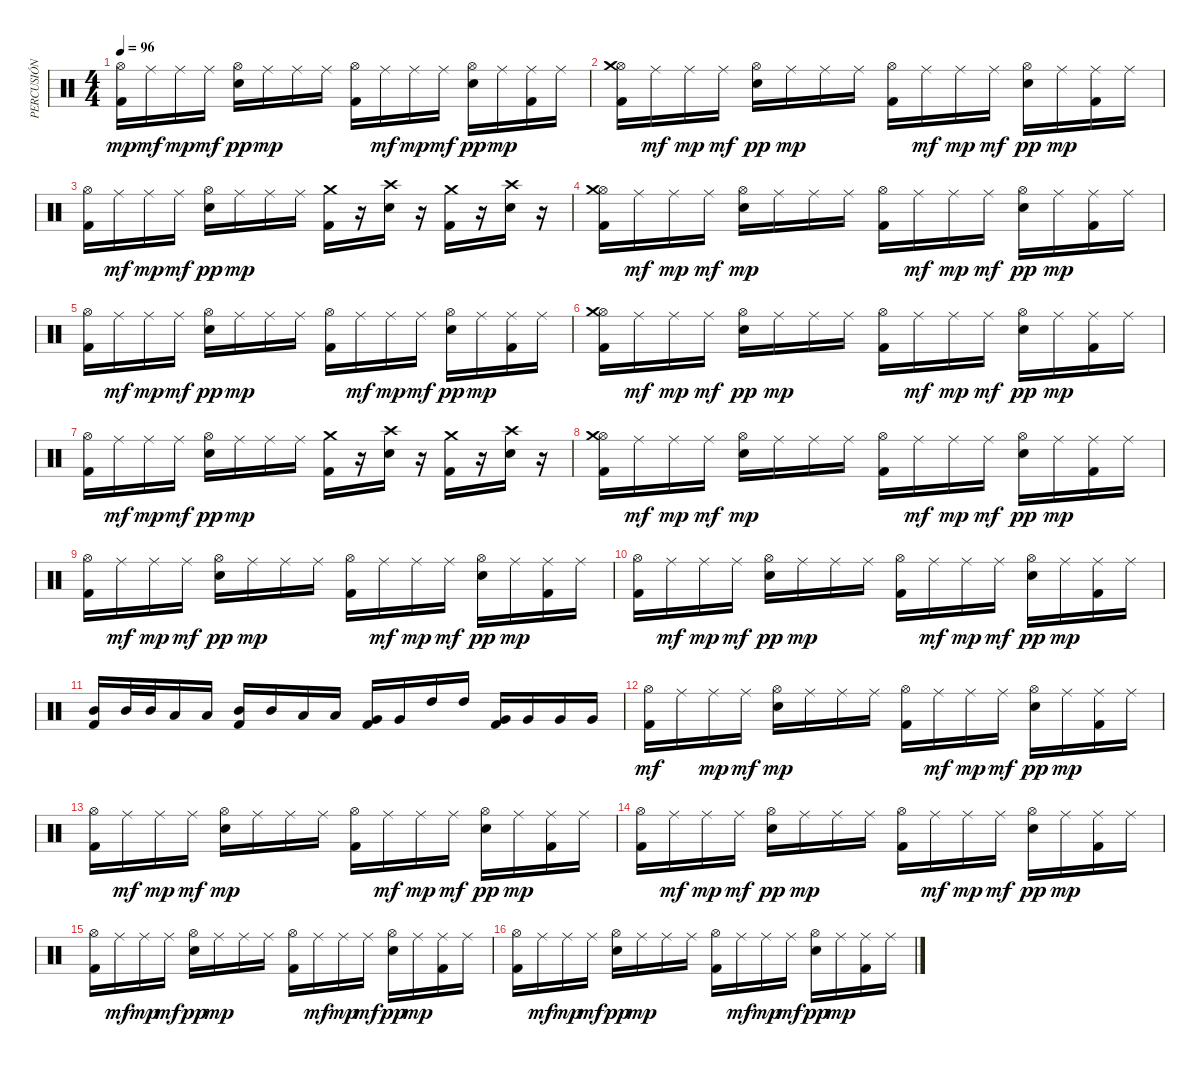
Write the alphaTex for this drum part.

\track ("PERCUSIÓN" "PERCUSIÓN") {instrument percussion}
\staff {score}
\articulation defaults
\ts (4 4)
\tempo 96
\clef neutral
\ks c
("Kick (hit) 2" "Hi-Hat (open)").16{dy mp} "Ride (middle)".16{dy mf} "Ride (middle)".16{dy mp} "Ride (middle)".16{dy mf} ("Snare (hit) 2" "Hi-Hat (open)").16{dy pp} "Ride (middle)".16{dy mp} "Ride (middle)".16 "Ride (middle)".16 ("Kick (hit) 2" "Hi-Hat (open)").16 "Ride (middle)".16{dy mf} "Ride (middle)".16{dy mp} "Ride (middle)".16{dy mf} ("Snare (hit) 2" "Hi-Hat (open)").16{dy pp} "Ride (middle)".16{dy mp} ("Kick (hit) 2" "Ride (middle)").16 "Ride (middle)".16 |
("Kick (hit) 2" "Hi-Hat (open)" "Crash medium (hit)").16 "Ride (middle)".16{dy mf} "Ride (middle)".16{dy mp} "Ride (middle)".16{dy mf} ("Snare (hit) 2" "Hi-Hat (open)").16{dy pp} "Ride (middle)".16{dy mp} "Ride (middle)".16 "Ride (middle)".16 ("Kick (hit) 2" "Hi-Hat (open)").16 "Ride (middle)".16{dy mf} "Ride (middle)".16{dy mp} "Ride (middle)".16{dy mf} ("Snare (hit) 2" "Hi-Hat (open)").16{dy pp} "Ride (middle)".16{dy mp} ("Kick (hit) 2" "Ride (middle)").16 "Ride (middle)".16 |
("Kick (hit) 2" "Hi-Hat (open)").16 "Ride (middle)".16{dy mf} "Ride (middle)".16{dy mp} "Ride (middle)".16{dy mf} ("Snare (hit) 2" "Hi-Hat (open)").16{dy pp} "Ride (middle)".16{dy mp} "Ride (middle)".16 "Ride (middle)".16 ("Kick (hit) 2" "Crash medium (hit)").16 r.16 ("Snare (hit) 2" "Crash high (hit)").16 r.16 ("Kick (hit) 2" "Crash medium (hit)").16 r.16 ("Snare (hit) 2" "Crash high (hit)").16 r.16 |
("Kick (hit) 2" "Hi-Hat (open)" "Crash medium (hit)").16 "Ride (middle)".16{dy mf} "Ride (middle)".16{dy mp} "Ride (middle)".16{dy mf} ("Snare (hit) 2" "Hi-Hat (open)").16{dy mp} "Ride (middle)".16 "Ride (middle)".16 "Ride (middle)".16 ("Kick (hit) 2" "Hi-Hat (open)").16 "Ride (middle)".16{dy mf} "Ride (middle)".16{dy mp} "Ride (middle)".16{dy mf} ("Snare (hit) 2" "Hi-Hat (open)").16{dy pp} "Ride (middle)".16{dy mp} ("Kick (hit) 2" "Ride (middle)").16 "Ride (middle)".16 |
("Kick (hit) 2" "Hi-Hat (open)").16 "Ride (middle)".16{dy mf} "Ride (middle)".16{dy mp} "Ride (middle)".16{dy mf} ("Snare (hit) 2" "Hi-Hat (open)").16{dy pp} "Ride (middle)".16{dy mp} "Ride (middle)".16 "Ride (middle)".16 ("Kick (hit) 2" "Hi-Hat (open)").16 "Ride (middle)".16{dy mf} "Ride (middle)".16{dy mp} "Ride (middle)".16{dy mf} ("Snare (hit) 2" "Hi-Hat (open)").16{dy pp} "Ride (middle)".16{dy mp} ("Kick (hit) 2" "Ride (middle)").16 "Ride (middle)".16 |
("Kick (hit) 2" "Hi-Hat (open)" "Crash medium (hit)").16 "Ride (middle)".16{dy mf} "Ride (middle)".16{dy mp} "Ride (middle)".16{dy mf} ("Snare (hit) 2" "Hi-Hat (open)").16{dy pp} "Ride (middle)".16{dy mp} "Ride (middle)".16 "Ride (middle)".16 ("Kick (hit) 2" "Hi-Hat (open)").16 "Ride (middle)".16{dy mf} "Ride (middle)".16{dy mp} "Ride (middle)".16{dy mf} ("Snare (hit) 2" "Hi-Hat (open)").16{dy pp} "Ride (middle)".16{dy mp} ("Kick (hit) 2" "Ride (middle)").16 "Ride (middle)".16 |
("Kick (hit) 2" "Hi-Hat (open)").16 "Ride (middle)".16{dy mf} "Ride (middle)".16{dy mp} "Ride (middle)".16{dy mf} ("Snare (hit) 2" "Hi-Hat (open)").16{dy pp} "Ride (middle)".16{dy mp} "Ride (middle)".16 "Ride (middle)".16 ("Kick (hit) 2" "Crash medium (hit)").16 r.16 ("Snare (hit) 2" "Crash high (hit)").16 r.16 ("Kick (hit) 2" "Crash medium (hit)").16 r.16 ("Snare (hit) 2" "Crash high (hit)").16 r.16 |
("Kick (hit) 2" "Hi-Hat (open)" "Crash medium (hit)").16 "Ride (middle)".16{dy mf} "Ride (middle)".16{dy mp} "Ride (middle)".16{dy mf} ("Snare (hit) 2" "Hi-Hat (open)").16{dy mp} "Ride (middle)".16 "Ride (middle)".16 "Ride (middle)".16 ("Kick (hit) 2" "Hi-Hat (open)").16 "Ride (middle)".16{dy mf} "Ride (middle)".16{dy mp} "Ride (middle)".16{dy mf} ("Snare (hit) 2" "Hi-Hat (open)").16{dy pp} "Ride (middle)".16{dy mp} ("Kick (hit) 2" "Ride (middle)").16 "Ride (middle)".16 |
("Kick (hit) 2" "Hi-Hat (open)").16 "Ride (middle)".16{dy mf} "Ride (middle)".16{dy mp} "Ride (middle)".16{dy mf} ("Snare (hit) 2" "Hi-Hat (open)").16{dy pp} "Ride (middle)".16{dy mp} "Ride (middle)".16 "Ride (middle)".16 ("Kick (hit) 2" "Hi-Hat (open)").16 "Ride (middle)".16{dy mf} "Ride (middle)".16{dy mp} "Ride (middle)".16{dy mf} ("Snare (hit) 2" "Hi-Hat (open)").16{dy pp} "Ride (middle)".16{dy mp} ("Kick (hit) 2" "Ride (middle)").16 "Ride (middle)".16 |
("Kick (hit) 2" "Hi-Hat (open)").16 "Ride (middle)".16{dy mf} "Ride (middle)".16{dy mp} "Ride (middle)".16{dy mf} ("Snare (hit) 2" "Hi-Hat (open)").16{dy pp} "Ride (middle)".16{dy mp} "Ride (middle)".16 "Ride (middle)".16 ("Kick (hit) 2" "Hi-Hat (open)").16 "Ride (middle)".16{dy mf} "Ride (middle)".16{dy mp} "Ride (middle)".16{dy mf} ("Snare (hit) 2" "Hi-Hat (open)").16{dy pp} "Ride (middle)".16{dy mp} ("Kick (hit) 2" "Ride (middle)").16 "Ride (middle)".16 |
("Kick (hit) 2" "Mid Tom (hit)").16 "Mid Tom (hit)".32 "Mid Tom (hit)".32 "Low Tom (hit)".16 "Low Tom (hit)".16 ("Mid Tom (hit)" "Kick (hit) 2").16 "Mid Tom (hit)".16 "Low Tom (hit)".16 "Low Tom (hit)".16 ("Kick (hit) 2" "Very Low Tom (hit)").16 "Very Low Tom (hit)".16 "High Tom (hit)".16 "High Tom (hit)".16 ("Kick (hit) 2" "Very Low Tom (hit)").16 "Very Low Tom (hit)".16 "Very Low Tom (hit)".16 "Very Low Tom (hit)".16 |
("Kick (hit) 2" "Hi-Hat (open)").16{dy mf} "Ride (middle)".16 "Ride (middle)".16{dy mp} "Ride (middle)".16{dy mf} ("Snare (hit) 2" "Hi-Hat (open)").16{dy mp} "Ride (middle)".16 "Ride (middle)".16 "Ride (middle)".16 ("Kick (hit) 2" "Hi-Hat (open)").16 "Ride (middle)".16{dy mf} "Ride (middle)".16{dy mp} "Ride (middle)".16{dy mf} ("Snare (hit) 2" "Hi-Hat (open)").16{dy pp} "Ride (middle)".16{dy mp} ("Kick (hit) 2" "Ride (middle)").16 "Ride (middle)".16 |
("Hi-Hat (open)" "Kick (hit) 2").16 "Ride (middle)".16{dy mf} "Ride (middle)".16{dy mp} "Ride (middle)".16{dy mf} ("Snare (hit) 2" "Hi-Hat (open)").16{dy mp} "Ride (middle)".16 "Ride (middle)".16 "Ride (middle)".16 ("Kick (hit) 2" "Hi-Hat (open)").16 "Ride (middle)".16{dy mf} "Ride (middle)".16{dy mp} "Ride (middle)".16{dy mf} ("Snare (hit) 2" "Hi-Hat (open)").16{dy pp} "Ride (middle)".16{dy mp} ("Kick (hit) 2" "Ride (middle)").16 "Ride (middle)".16 |
("Hi-Hat (open)" "Kick (hit) 2").16 "Ride (middle)".16{dy mf} "Ride (middle)".16{dy mp} "Ride (middle)".16{dy mf} ("Snare (hit) 2" "Hi-Hat (open)").16{dy pp} "Ride (middle)".16{dy mp} "Ride (middle)".16 "Ride (middle)".16 ("Kick (hit) 2" "Hi-Hat (open)").16 "Ride (middle)".16{dy mf} "Ride (middle)".16{dy mp} "Ride (middle)".16{dy mf} ("Snare (hit) 2" "Hi-Hat (open)").16{dy pp} "Ride (middle)".16{dy mp} ("Kick (hit) 2" "Ride (middle)").16 "Ride (middle)".16 |
("Kick (hit) 2" "Hi-Hat (open)").16 "Ride (middle)".16{dy mf} "Ride (middle)".16{dy mp} "Ride (middle)".16{dy mf} ("Snare (hit) 2" "Hi-Hat (open)").16{dy pp} "Ride (middle)".16{dy mp} "Ride (middle)".16 "Ride (middle)".16 ("Kick (hit) 2" "Hi-Hat (open)").16 "Ride (middle)".16{dy mf} "Ride (middle)".16{dy mp} "Ride (middle)".16{dy mf} ("Snare (hit) 2" "Hi-Hat (open)").16{dy pp} "Ride (middle)".16{dy mp} ("Kick (hit) 2" "Ride (middle)").16 "Ride (middle)".16 |
("Hi-Hat (open)" "Kick (hit) 2").16 "Ride (middle)".16{dy mf} "Ride (middle)".16{dy mp} "Ride (middle)".16{dy mf} ("Snare (hit) 2" "Hi-Hat (open)").16{dy pp} "Ride (middle)".16{dy mp} "Ride (middle)".16 "Ride (middle)".16 ("Kick (hit) 2" "Hi-Hat (open)").16 "Ride (middle)".16{dy mf} "Ride (middle)".16{dy mp} "Ride (middle)".16{dy mf} ("Snare (hit) 2" "Hi-Hat (open)").16{dy pp} "Ride (middle)".16{dy mp} ("Kick (hit) 2" "Ride (middle)").16 "Ride (middle)".16
